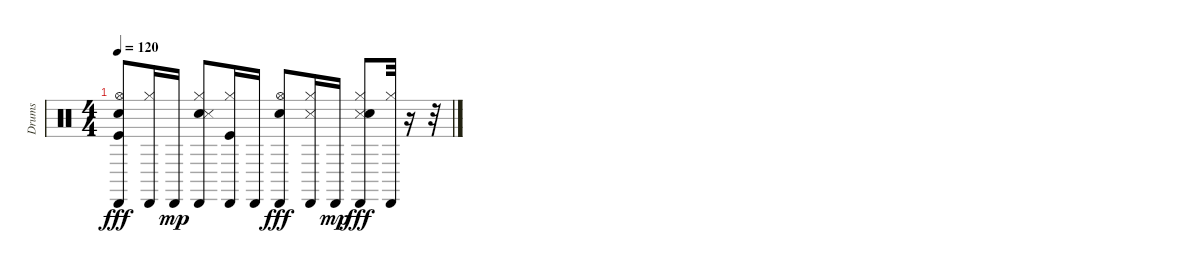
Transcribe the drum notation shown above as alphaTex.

\track ("Drums" "Drums") {instrument percussion}
\staff {score}
\articulation defaults
\ts (4 4)
\tempo 120
\clef neutral
\ks c
("Kick (hit)" "Cabasa (hit)" "Hi-Hat (open)" "Snare (hit) 2").8{dy fff volume 3} ("Cabasa (hit)" "Hi-Hat (closed)").16{volume 2} "Cabasa (hit)".16{dy mp} ("Snare (hit) 2" "Hi-Hat (closed)" "Metronome (hit)" "Cabasa (hit)").8 ("Kick (hit)" "Hi-Hat (closed)" "Cabasa (hit)").16{volume 2} "Cabasa (hit)".16 ("Cabasa (hit)" "Hi-Hat (open)" "Snare (hit) 2").8{dy fff} ("Hi-Hat (closed)" "Cabasa (hit)" "Metronome (hit)").16{volume 2} "Cabasa (hit)".16{dy mp volume 2} ("Metronome (hit)" "Cabasa (hit)" "Hi-Hat (closed)" "Snare (hit) 2").8{dy fff} ("Cabasa (hit)" "Hi-Hat (closed)").32 r.16 r.32
